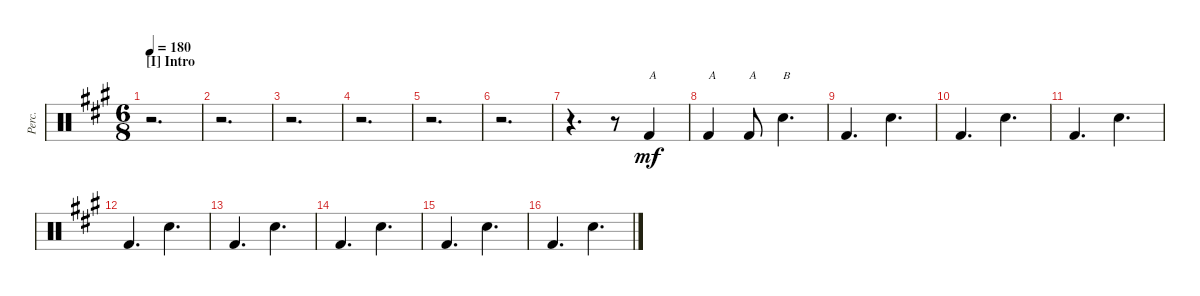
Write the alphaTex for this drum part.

\defaultSystemsLayout 4
\bracketExtendMode groupsimilarinstruments
\otherSystemsTrackNameOrientation horizontal
\track ("Percussions" "Perc.") {instrument percussion}
\staff {score}
\articulation defaults
\ts (6 8)
\beaming (8 3 3)
\section ("I" "Intro")
\tempo 180
\clef neutral
\ks f#minor
r.2{d dy mf beam Down} |
r.2{d beam Down} |
r.2{d beam Down} |
r.2{d beam Down} |
r.2{d beam Down} |
r.2{d beam Down} |
r.4{d beam Down} r.8{beam Down} "Kick (hit) 2"{acc forcenatural}.4{txt "A" beam Up} |
"Kick (hit) 2"{acc forcenatural}.4{txt "A" beam Up} "Kick (hit) 2"{acc forcenatural}.8{txt "A" beam Up} "Snare (hit) 2"{acc forcenatural}.4{d txt "B" beam Down} |
"Kick (hit) 2"{acc forcenatural}.4{d beam Up} "Snare (hit) 2"{acc forcenatural}.4{d beam Down} |
"Kick (hit) 2"{acc forcenatural}.4{d beam Up} "Snare (hit) 2"{acc forcenatural}.4{d beam Down} |
"Kick (hit) 2"{acc forcenatural}.4{d beam Up} "Snare (hit) 2"{acc forcenatural}.4{d beam Down} |
"Kick (hit) 2"{acc forcenatural}.4{d beam Up} "Snare (hit) 2"{acc forcenatural}.4{d beam Down} |
"Kick (hit) 2"{acc forcenatural}.4{d beam Up} "Snare (hit) 2"{acc forcenatural}.4{d beam Down} |
"Kick (hit) 2"{acc forcenatural}.4{d beam Up} "Snare (hit) 2"{acc forcenatural}.4{d beam Down} |
"Kick (hit) 2"{acc forcenatural}.4{d beam Up} "Snare (hit) 2"{acc forcenatural}.4{d beam Down} |
"Kick (hit) 2"{acc forcenatural}.4{d beam Up} "Snare (hit) 2"{acc forcenatural}.4{d beam Down}
